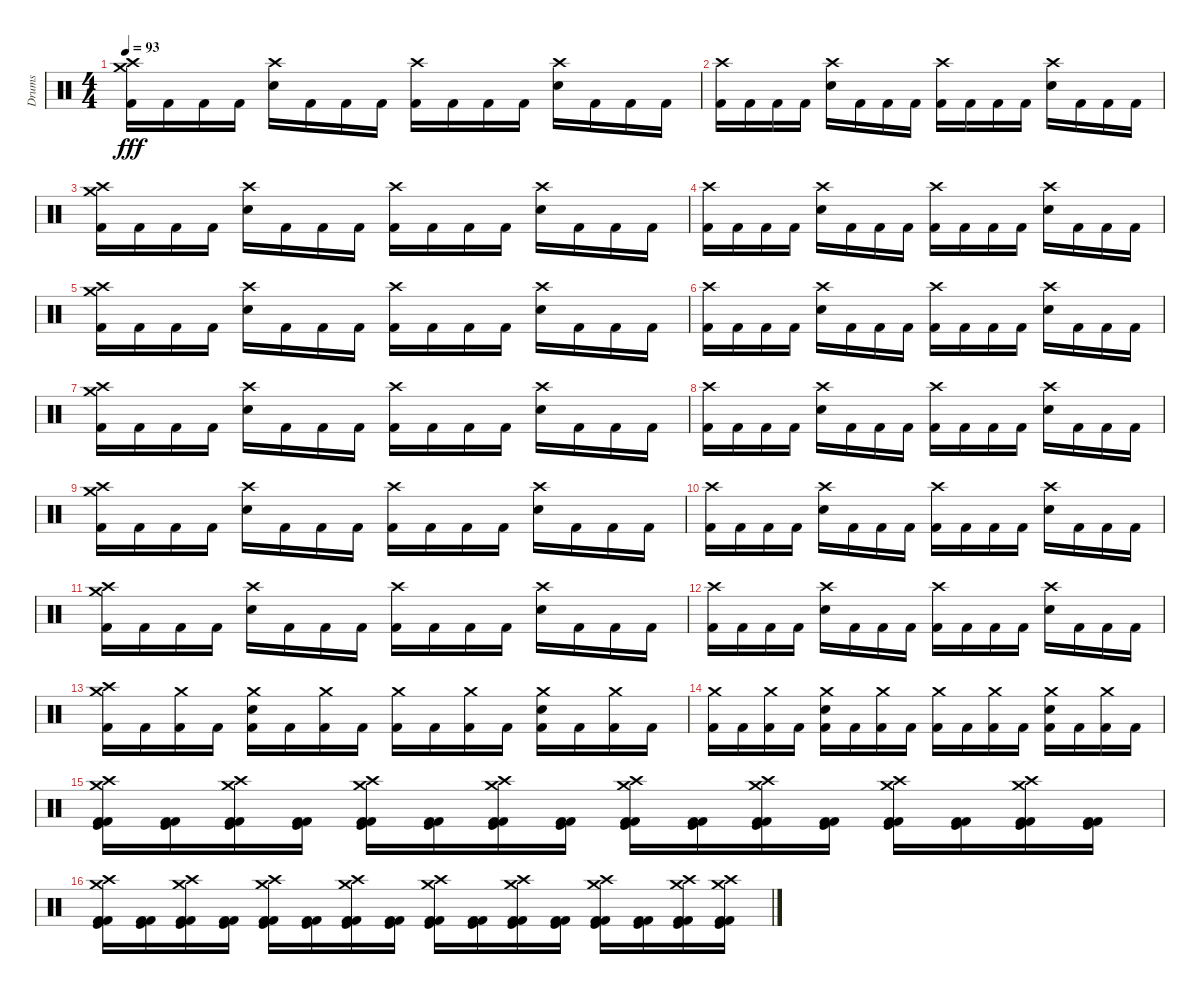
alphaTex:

\track ("Drums" "Drums") {instrument percussion}
\staff {score}
\articulation defaults
\ts (4 4)
\tempo 93
\clef neutral
\ks c
("Crash medium (hit)" "Crash high (hit)" "Kick (hit) 2").16{dy fff} "Kick (hit) 2".16 "Kick (hit) 2".16 "Kick (hit) 2".16 ("Crash high (hit)" "Electric Snare (hit)").16 "Kick (hit) 2".16 "Kick (hit) 2".16 "Kick (hit) 2".16 ("Crash high (hit)" "Kick (hit) 2").16 "Kick (hit) 2".16 "Kick (hit) 2".16 "Kick (hit) 2".16 ("Crash high (hit)" "Electric Snare (hit)").16 "Kick (hit) 2".16 "Kick (hit) 2".16 "Kick (hit) 2".16 |
("Crash high (hit)" "Kick (hit) 2").16 "Kick (hit) 2".16 "Kick (hit) 2".16 "Kick (hit) 2".16 ("Crash high (hit)" "Electric Snare (hit)").16 "Kick (hit) 2".16 "Kick (hit) 2".16 "Kick (hit) 2".16 ("Crash high (hit)" "Kick (hit) 2").16 "Kick (hit) 2".16 "Kick (hit) 2".16 "Kick (hit) 2".16 ("Crash high (hit)" "Electric Snare (hit)").16 "Kick (hit) 2".16 "Kick (hit) 2".16 "Kick (hit) 2".16 |
("Crash medium (hit)" "Crash high (hit)" "Kick (hit) 2").16 "Kick (hit) 2".16 "Kick (hit) 2".16 "Kick (hit) 2".16 ("Crash high (hit)" "Electric Snare (hit)").16 "Kick (hit) 2".16 "Kick (hit) 2".16 "Kick (hit) 2".16 ("Crash high (hit)" "Kick (hit) 2").16 "Kick (hit) 2".16 "Kick (hit) 2".16 "Kick (hit) 2".16 ("Crash high (hit)" "Electric Snare (hit)").16 "Kick (hit) 2".16 "Kick (hit) 2".16 "Kick (hit) 2".16 |
("Crash high (hit)" "Kick (hit) 2").16 "Kick (hit) 2".16 "Kick (hit) 2".16 "Kick (hit) 2".16 ("Crash high (hit)" "Electric Snare (hit)").16 "Kick (hit) 2".16 "Kick (hit) 2".16 "Kick (hit) 2".16 ("Crash high (hit)" "Kick (hit) 2").16 "Kick (hit) 2".16 "Kick (hit) 2".16 "Kick (hit) 2".16 ("Crash high (hit)" "Electric Snare (hit)").16 "Kick (hit) 2".16 "Kick (hit) 2".16 "Kick (hit) 2".16 |
("Crash medium (hit)" "Crash high (hit)" "Kick (hit) 2").16 "Kick (hit) 2".16 "Kick (hit) 2".16 "Kick (hit) 2".16 ("Crash high (hit)" "Electric Snare (hit)").16 "Kick (hit) 2".16 "Kick (hit) 2".16 "Kick (hit) 2".16 ("Crash high (hit)" "Kick (hit) 2").16 "Kick (hit) 2".16 "Kick (hit) 2".16 "Kick (hit) 2".16 ("Crash high (hit)" "Electric Snare (hit)").16 "Kick (hit) 2".16 "Kick (hit) 2".16 "Kick (hit) 2".16 |
("Crash high (hit)" "Kick (hit) 2").16 "Kick (hit) 2".16 "Kick (hit) 2".16 "Kick (hit) 2".16 ("Crash high (hit)" "Electric Snare (hit)").16 "Kick (hit) 2".16 "Kick (hit) 2".16 "Kick (hit) 2".16 ("Crash high (hit)" "Kick (hit) 2").16 "Kick (hit) 2".16 "Kick (hit) 2".16 "Kick (hit) 2".16 ("Crash high (hit)" "Electric Snare (hit)").16 "Kick (hit) 2".16 "Kick (hit) 2".16 "Kick (hit) 2".16 |
("Crash medium (hit)" "Crash high (hit)" "Kick (hit) 2").16 "Kick (hit) 2".16 "Kick (hit) 2".16 "Kick (hit) 2".16 ("Crash high (hit)" "Electric Snare (hit)").16 "Kick (hit) 2".16 "Kick (hit) 2".16 "Kick (hit) 2".16 ("Crash high (hit)" "Kick (hit) 2").16 "Kick (hit) 2".16 "Kick (hit) 2".16 "Kick (hit) 2".16 ("Crash high (hit)" "Electric Snare (hit)").16 "Kick (hit) 2".16 "Kick (hit) 2".16 "Kick (hit) 2".16 |
("Crash high (hit)" "Kick (hit) 2").16 "Kick (hit) 2".16 "Kick (hit) 2".16 "Kick (hit) 2".16 ("Crash high (hit)" "Electric Snare (hit)").16 "Kick (hit) 2".16 "Kick (hit) 2".16 "Kick (hit) 2".16 ("Crash high (hit)" "Kick (hit) 2").16 "Kick (hit) 2".16 "Kick (hit) 2".16 "Kick (hit) 2".16 ("Crash high (hit)" "Electric Snare (hit)").16 "Kick (hit) 2".16 "Kick (hit) 2".16 "Kick (hit) 2".16 |
("Crash medium (hit)" "Crash high (hit)" "Kick (hit) 2").16 "Kick (hit) 2".16 "Kick (hit) 2".16 "Kick (hit) 2".16 ("Crash high (hit)" "Electric Snare (hit)").16 "Kick (hit) 2".16 "Kick (hit) 2".16 "Kick (hit) 2".16 ("Crash high (hit)" "Kick (hit) 2").16 "Kick (hit) 2".16 "Kick (hit) 2".16 "Kick (hit) 2".16 ("Crash high (hit)" "Electric Snare (hit)").16 "Kick (hit) 2".16 "Kick (hit) 2".16 "Kick (hit) 2".16 |
("Crash high (hit)" "Kick (hit) 2").16 "Kick (hit) 2".16 "Kick (hit) 2".16 "Kick (hit) 2".16 ("Crash high (hit)" "Electric Snare (hit)").16 "Kick (hit) 2".16 "Kick (hit) 2".16 "Kick (hit) 2".16 ("Crash high (hit)" "Kick (hit) 2").16 "Kick (hit) 2".16 "Kick (hit) 2".16 "Kick (hit) 2".16 ("Crash high (hit)" "Electric Snare (hit)").16 "Kick (hit) 2".16 "Kick (hit) 2".16 "Kick (hit) 2".16 |
("Crash medium (hit)" "Crash high (hit)" "Kick (hit) 2").16 "Kick (hit) 2".16 "Kick (hit) 2".16 "Kick (hit) 2".16 ("Crash high (hit)" "Electric Snare (hit)").16 "Kick (hit) 2".16 "Kick (hit) 2".16 "Kick (hit) 2".16 ("Crash high (hit)" "Kick (hit) 2").16 "Kick (hit) 2".16 "Kick (hit) 2".16 "Kick (hit) 2".16 ("Crash high (hit)" "Electric Snare (hit)").16 "Kick (hit) 2".16 "Kick (hit) 2".16 "Kick (hit) 2".16 |
("Crash high (hit)" "Kick (hit) 2").16 "Kick (hit) 2".16 "Kick (hit) 2".16 "Kick (hit) 2".16 ("Crash high (hit)" "Electric Snare (hit)").16 "Kick (hit) 2".16 "Kick (hit) 2".16 "Kick (hit) 2".16 ("Crash high (hit)" "Kick (hit) 2").16 "Kick (hit) 2".16 "Kick (hit) 2".16 "Kick (hit) 2".16 ("Crash high (hit)" "Electric Snare (hit)").16 "Kick (hit) 2".16 "Kick (hit) 2".16 "Kick (hit) 2".16 |
("Crash medium (hit)" "Crash high (hit)" "Kick (hit) 2").16 "Kick (hit) 2".16 ("Crash medium (hit)" "Kick (hit) 2").16 "Kick (hit) 2".16 ("Crash medium (hit)" "Electric Snare (hit)" "Kick (hit) 2").16 "Kick (hit) 2".16 ("Crash medium (hit)" "Kick (hit) 2").16 "Kick (hit) 2".16 ("Crash medium (hit)" "Kick (hit) 2").16 "Kick (hit) 2".16 ("Crash medium (hit)" "Kick (hit) 2").16 "Kick (hit) 2".16 ("Crash medium (hit)" "Electric Snare (hit)" "Kick (hit) 2").16 "Kick (hit) 2".16 ("Crash medium (hit)" "Kick (hit) 2").16 "Kick (hit) 2".16 |
("Crash medium (hit)" "Kick (hit) 2").16 "Kick (hit) 2".16 ("Crash medium (hit)" "Kick (hit) 2").16 "Kick (hit) 2".16 ("Crash medium (hit)" "Electric Snare (hit)" "Kick (hit) 2").16 "Kick (hit) 2".16 ("Crash medium (hit)" "Kick (hit) 2").16 "Kick (hit) 2".16 ("Crash medium (hit)" "Kick (hit) 2").16 "Kick (hit) 2".16 ("Crash medium (hit)" "Kick (hit) 2").16 "Kick (hit) 2".16 ("Crash medium (hit)" "Electric Snare (hit)" "Kick (hit) 2").16 "Kick (hit) 2".16 ("Crash medium (hit)" "Kick (hit) 2").16 "Kick (hit) 2".16 |
("Crash medium (hit)" "Crash high (hit)" "Kick (hit) 2" "Kick (hit)" "Kick (hit) 2").16 ("Kick (hit) 2" "Kick (hit)" "Kick (hit) 2").16 ("Crash medium (hit)" "Crash high (hit)" "Kick (hit) 2" "Kick (hit)" "Kick (hit) 2").16 ("Kick (hit) 2" "Kick (hit)" "Kick (hit) 2").16 ("Crash medium (hit)" "Crash high (hit)" "Kick (hit) 2" "Kick (hit)" "Kick (hit) 2").16 ("Kick (hit) 2" "Kick (hit)" "Kick (hit) 2").16 ("Crash medium (hit)" "Crash high (hit)" "Kick (hit) 2" "Kick (hit)" "Kick (hit) 2").16 ("Kick (hit) 2" "Kick (hit)" "Kick (hit) 2").16 ("Crash medium (hit)" "Crash high (hit)" "Kick (hit) 2" "Kick (hit)" "Kick (hit) 2").16 ("Kick (hit) 2" "Kick (hit)" "Kick (hit) 2").16 ("Crash medium (hit)" "Crash high (hit)" "Kick (hit) 2" "Kick (hit)" "Kick (hit) 2").16 ("Kick (hit) 2" "Kick (hit)" "Kick (hit) 2").16 ("Crash medium (hit)" "Crash high (hit)" "Kick (hit) 2" "Kick (hit)" "Kick (hit) 2").16 ("Kick (hit) 2" "Kick (hit)" "Kick (hit) 2").16 ("Crash medium (hit)" "Crash high (hit)" "Kick (hit) 2" "Kick (hit)" "Kick (hit) 2").16 ("Kick (hit) 2" "Kick (hit)" "Kick (hit) 2").16 |
("Crash medium (hit)" "Crash high (hit)" "Kick (hit) 2" "Kick (hit)" "Kick (hit) 2").16 ("Kick (hit) 2" "Kick (hit)" "Kick (hit) 2").16 ("Crash medium (hit)" "Crash high (hit)" "Kick (hit) 2" "Kick (hit)" "Kick (hit) 2").16 ("Kick (hit) 2" "Kick (hit)" "Kick (hit) 2").16 ("Crash medium (hit)" "Crash high (hit)" "Kick (hit) 2" "Kick (hit)" "Kick (hit) 2").16 ("Kick (hit) 2" "Kick (hit)" "Kick (hit) 2").16 ("Crash medium (hit)" "Crash high (hit)" "Kick (hit) 2" "Kick (hit)" "Kick (hit) 2").16 ("Kick (hit) 2" "Kick (hit)" "Kick (hit) 2").16 ("Crash medium (hit)" "Crash high (hit)" "Kick (hit) 2" "Kick (hit)" "Kick (hit) 2").16 ("Kick (hit) 2" "Kick (hit)" "Kick (hit) 2").16 ("Crash medium (hit)" "Crash high (hit)" "Kick (hit) 2" "Kick (hit)" "Kick (hit) 2").16 ("Kick (hit) 2" "Kick (hit)" "Kick (hit) 2").16 ("Crash medium (hit)" "Crash high (hit)" "Kick (hit) 2" "Kick (hit)" "Kick (hit) 2").16 ("Kick (hit) 2" "Kick (hit)" "Kick (hit) 2").16 ("Crash medium (hit)" "Crash high (hit)" "Kick (hit) 2" "Kick (hit)" "Kick (hit) 2").16 ("Crash medium (hit)" "Crash high (hit)" "Kick (hit) 2" "Kick (hit)" "Kick (hit) 2").16
